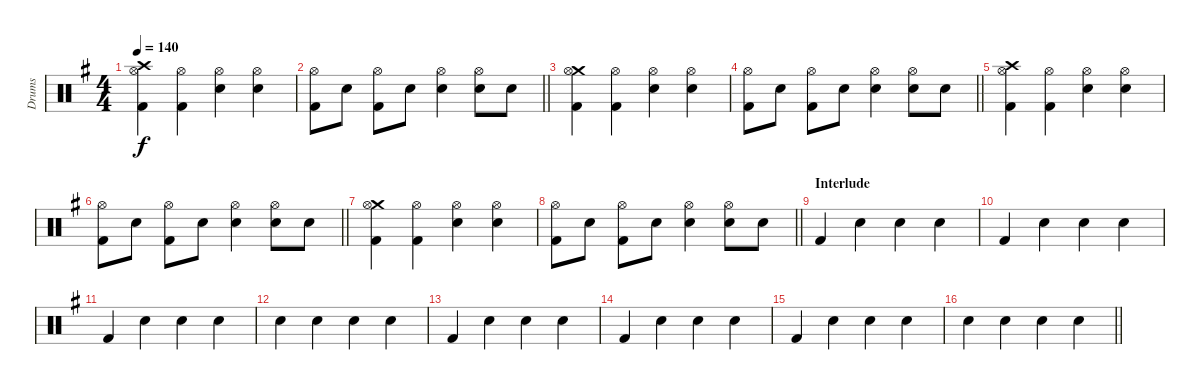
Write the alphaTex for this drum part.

\track ("Drums" "Drums") {instrument percussion}
\staff {score}
\articulation defaults
\ts (4 4)
\tempo 140
\clef neutral
\ks g
("Crash high (hit)" "Hi-Hat (open)" "Kick (hit) 2").4{dy f} ("Hi-Hat (open)" "Kick (hit) 2").4 ("Snare (hit) 2" "Hi-Hat (open)").4 ("Snare (hit) 2" "Hi-Hat (open)").4 |
\barLineRight lightlight
("Kick (hit) 2" "Hi-Hat (open)").8 "Snare (hit) 2".8 ("Kick (hit) 2" "Hi-Hat (open)").8 "Snare (hit) 2".8 ("Snare (hit) 2" "Hi-Hat (open)").4 ("Snare (hit) 2" "Hi-Hat (open)").8 "Snare (hit) 2".8 |
("Crash medium (hit)" "Hi-Hat (open)" "Kick (hit) 2").4 ("Hi-Hat (open)" "Kick (hit) 2").4 ("Snare (hit) 2" "Hi-Hat (open)").4 ("Snare (hit) 2" "Hi-Hat (open)").4 |
\barLineRight lightlight
("Kick (hit) 2" "Hi-Hat (open)").8 "Snare (hit) 2".8 ("Kick (hit) 2" "Hi-Hat (open)").8 "Snare (hit) 2".8 ("Snare (hit) 2" "Hi-Hat (open)").4 ("Snare (hit) 2" "Hi-Hat (open)").8 "Snare (hit) 2".8 |
("Crash high (hit)" "Hi-Hat (open)" "Kick (hit) 2").4 ("Hi-Hat (open)" "Kick (hit) 2").4 ("Snare (hit) 2" "Hi-Hat (open)").4 ("Snare (hit) 2" "Hi-Hat (open)").4 |
\barLineRight lightlight
("Kick (hit) 2" "Hi-Hat (open)").8 "Snare (hit) 2".8 ("Kick (hit) 2" "Hi-Hat (open)").8 "Snare (hit) 2".8 ("Snare (hit) 2" "Hi-Hat (open)").4 ("Snare (hit) 2" "Hi-Hat (open)").8 "Snare (hit) 2".8 |
("Crash medium (hit)" "Hi-Hat (open)" "Kick (hit) 2").4 ("Hi-Hat (open)" "Kick (hit) 2").4 ("Snare (hit) 2" "Hi-Hat (open)").4 ("Snare (hit) 2" "Hi-Hat (open)").4 |
\barLineRight lightlight
("Kick (hit) 2" "Hi-Hat (open)").8 "Snare (hit) 2".8 ("Kick (hit) 2" "Hi-Hat (open)").8 "Snare (hit) 2".8 ("Snare (hit) 2" "Hi-Hat (open)").4 ("Snare (hit) 2" "Hi-Hat (open)").8 "Snare (hit) 2".8 |
\section ("" "Interlude")
"Kick (hit) 2".4 "Snare (hit) 2".4 "Snare (hit) 2".4 "Snare (hit) 2".4 |
"Kick (hit) 2".4 "Snare (hit) 2".4 "Snare (hit) 2".4 "Snare (hit) 2".4 |
"Kick (hit) 2".4 "Snare (hit) 2".4 "Snare (hit) 2".4 "Snare (hit) 2".4 |
"Snare (hit) 2".4 "Snare (hit) 2".4 "Snare (hit) 2".4 "Snare (hit) 2".4 |
"Kick (hit) 2".4 "Snare (hit) 2".4 "Snare (hit) 2".4 "Snare (hit) 2".4 |
"Kick (hit) 2".4 "Snare (hit) 2".4 "Snare (hit) 2".4 "Snare (hit) 2".4 |
"Kick (hit) 2".4 "Snare (hit) 2".4 "Snare (hit) 2".4 "Snare (hit) 2".4 |
\barLineRight lightlight "Snare (hit) 2".4 "Snare (hit) 2".4 "Snare (hit) 2".4 "Snare (hit) 2".4
